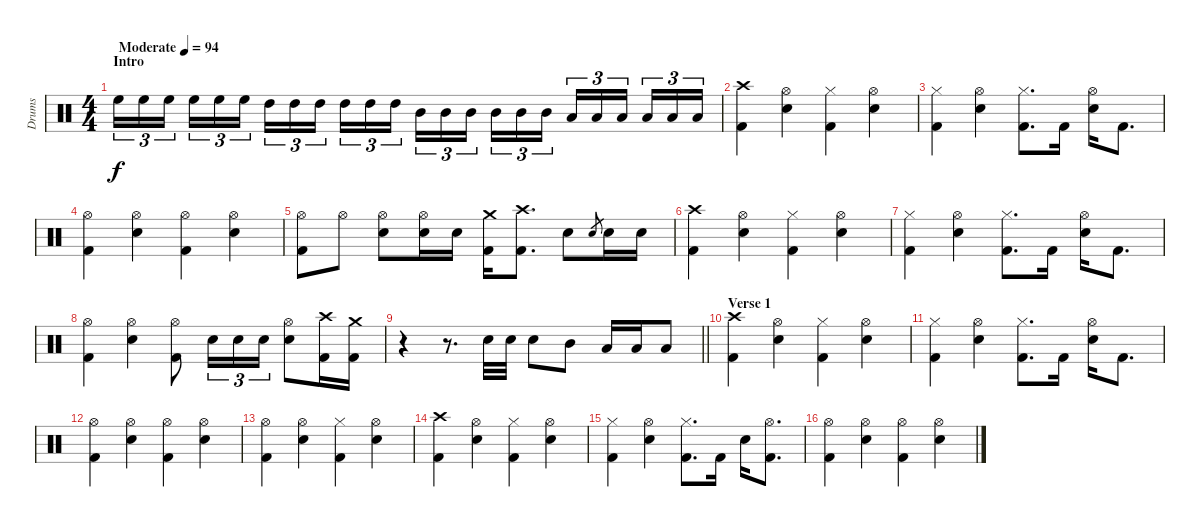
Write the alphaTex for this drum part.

\track ("Drums" "Drums") {instrument percussion}
\staff {score}
\articulation defaults
\ts (4 4)
\section ("" "Intro")
\tempo (94 "Moderate")
\clef neutral
\ks c "High Floor Tom (hit)".16{tu (3 2) dy f} "High Floor Tom (hit)".16{tu (3 2)} "High Floor Tom (hit)".16{tu (3 2) beam splitsecondary} "High Floor Tom (hit)".16{tu (3 2)} "High Floor Tom (hit)".16{tu (3 2)} "High Floor Tom (hit)".16{tu (3 2)} "High Tom (hit)".16{tu (3 2)} "High Tom (hit)".16{tu (3 2)} "High Tom (hit)".16{tu (3 2) beam splitsecondary} "High Tom (hit)".16{tu (3 2)} "High Tom (hit)".16{tu (3 2)} "High Tom (hit)".16{tu (3 2)} "Mid Tom (hit)".16{tu (3 2)} "Mid Tom (hit)".16{tu (3 2)} "Mid Tom (hit)".16{tu (3 2) beam splitsecondary} "Mid Tom (hit)".16{tu (3 2)} "Mid Tom (hit)".16{tu (3 2)} "Mid Tom (hit)".16{tu (3 2)} "Low Tom (hit)".16{tu (3 2)} "Low Tom (hit)".16{tu (3 2)} "Low Tom (hit)".16{tu (3 2) beam splitsecondary} "Low Tom (hit)".16{tu (3 2)} "Low Tom (hit)".16{tu (3 2)} "Low Tom (hit)".16{tu (3 2)}
|
("Crash high (hit)" "Kick (hit) 2").4 ("Hi-Hat (open)" "Snare (hit) 2").4 ("Hi-Hat (closed)" "Kick (hit) 2").4 ("Hi-Hat (open)" "Snare (hit) 2").4 |
("Hi-Hat (closed)" "Kick (hit) 2").4 ("Hi-Hat (open)" "Snare (hit) 2").4 ("Hi-Hat (closed)" "Kick (hit) 2").8{d} "Kick (hit) 2".16 ("Hi-Hat (open)" "Snare (hit) 2").16 "Kick (hit) 2".8{d} |
("Hi-Hat (open)" "Kick (hit) 2").4 ("Hi-Hat (open)" "Snare (hit) 2").4 ("Hi-Hat (open)" "Kick (hit) 2").4 ("Hi-Hat (open)" "Snare (hit) 2").4 |
("Hi-Hat (open)" "Kick (hit) 2").8 "Hi-Hat (open)".8 ("Hi-Hat (open)" "Snare (hit) 2").8 ("Hi-Hat (open)" "Snare (hit) 2").16 "Snare (hit) 2".16 ("Crash medium (hit)" "Kick (hit) 2").16 ("Crash high (hit)" "Kick (hit) 2").8{d} "Snare (hit) 2".8 "Snare (hit) 2".8{gr} "Snare (hit) 2".16 "Snare (hit) 2".16 |
("Crash high (hit)" "Kick (hit) 2").4 ("Hi-Hat (open)" "Snare (hit) 2").4 ("Hi-Hat (closed)" "Kick (hit) 2").4 ("Hi-Hat (open)" "Snare (hit) 2").4 |
("Hi-Hat (closed)" "Kick (hit) 2").4 ("Hi-Hat (open)" "Snare (hit) 2").4 ("Hi-Hat (closed)" "Kick (hit) 2").8{d} "Kick (hit) 2".16 ("Hi-Hat (open)" "Snare (hit) 2").16 "Kick (hit) 2".8{d} |
("Hi-Hat (open)" "Kick (hit) 2").4 ("Hi-Hat (open)" "Snare (hit) 2").4 ("Hi-Hat (open)" "Kick (hit) 2").8 "Snare (hit) 2".16{tu (3 2)} "Snare (hit) 2".16{tu (3 2)} "Snare (hit) 2".16{tu (3 2)} ("Hi-Hat (open)" "Snare (hit) 2").8 ("Crash high (hit)" "Kick (hit) 2").16 ("Crash medium (hit)" "Kick (hit) 2").16 |
\barLineRight lightlight
r.4 r.8{d} "Snare (hit) 2".32 "Snare (hit) 2".32 "Snare (hit) 2".8 "Mid Tom (hit)".8 "Low Tom (hit)".16 "Low Tom (hit)".16 "Low Tom (hit)".8 |
\section ("" "Verse 1")
("Crash high (hit)" "Kick (hit) 2").4 ("Hi-Hat (open)" "Snare (hit) 2").4 ("Hi-Hat (closed)" "Kick (hit) 2").4 ("Hi-Hat (open)" "Snare (hit) 2").4 |
("Hi-Hat (closed)" "Kick (hit) 2").4 ("Hi-Hat (open)" "Snare (hit) 2").4 ("Hi-Hat (closed)" "Kick (hit) 2").8{d} "Kick (hit) 2".16 ("Hi-Hat (open)" "Snare (hit) 2").16 "Kick (hit) 2".8{d} |
("Hi-Hat (open)" "Kick (hit) 2").4 ("Hi-Hat (open)" "Snare (hit) 2").4 ("Hi-Hat (open)" "Kick (hit) 2").4 ("Hi-Hat (open)" "Snare (hit) 2").4 |
("Hi-Hat (open)" "Kick (hit) 2").4 ("Hi-Hat (open)" "Snare (hit) 2").4 ("Hi-Hat (closed)" "Kick (hit) 2").4 ("Hi-Hat (open)" "Snare (hit) 2").4 |
("Crash high (hit)" "Kick (hit) 2").4 ("Hi-Hat (open)" "Snare (hit) 2").4 ("Hi-Hat (closed)" "Kick (hit) 2").4 ("Hi-Hat (open)" "Snare (hit) 2").4 |
("Hi-Hat (closed)" "Kick (hit) 2").4 ("Hi-Hat (open)" "Snare (hit) 2").4 ("Hi-Hat (closed)" "Kick (hit) 2").8{d} "Kick (hit) 2".16 "Snare (hit) 2".16 ("Hi-Hat (open)" "Kick (hit) 2").8{d} |
("Hi-Hat (open)" "Kick (hit) 2").4 ("Hi-Hat (open)" "Snare (hit) 2").4 ("Hi-Hat (open)" "Kick (hit) 2").4 ("Hi-Hat (open)" "Snare (hit) 2").4
